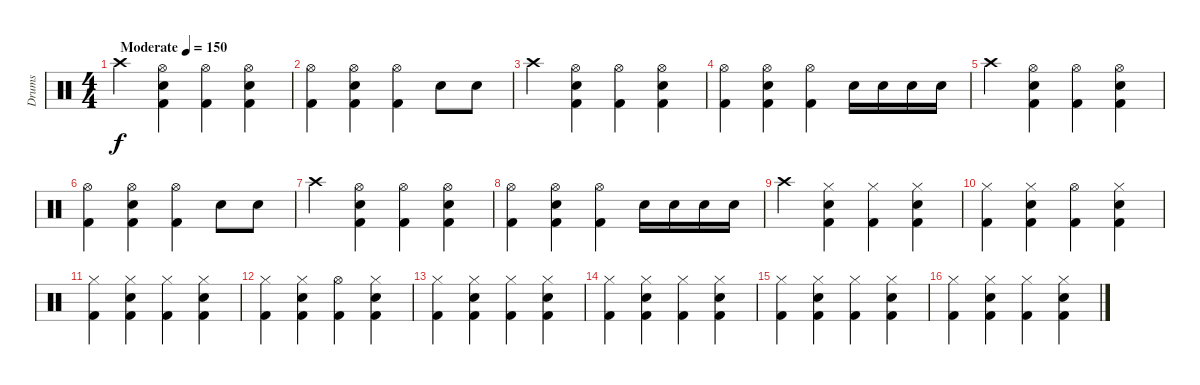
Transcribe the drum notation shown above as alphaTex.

\track ("Drums" "Drums") {instrument percussion}
\staff {score}
\articulation defaults
\ts (4 4)
\tempo (150 "Moderate")
\clef neutral
\ks c "Crash high (hit)".4{dy f}
("Hi-Hat (open)" "Electric Snare (hit)" "Kick (hit) 2").4 ("Hi-Hat (open)" "Kick (hit) 2").4 ("Hi-Hat (open)" "Electric Snare (hit)" "Kick (hit) 2").4 |
("Hi-Hat (open)" "Kick (hit) 2").4 ("Hi-Hat (open)" "Electric Snare (hit)" "Kick (hit) 2").4 ("Hi-Hat (open)" "Kick (hit) 2").4 "Electric Snare (hit)".8 "Electric Snare (hit)".8 |
"Crash high (hit)".4 ("Hi-Hat (open)" "Electric Snare (hit)" "Kick (hit) 2").4 ("Hi-Hat (open)" "Kick (hit) 2").4 ("Hi-Hat (open)" "Electric Snare (hit)" "Kick (hit) 2").4 |
("Hi-Hat (open)" "Kick (hit) 2").4 ("Hi-Hat (open)" "Electric Snare (hit)" "Kick (hit) 2").4 ("Hi-Hat (open)" "Kick (hit) 2").4 "Electric Snare (hit)".16 "Electric Snare (hit)".16 "Electric Snare (hit)".16 "Electric Snare (hit)".16 |
"Crash high (hit)".4 ("Hi-Hat (open)" "Electric Snare (hit)" "Kick (hit) 2").4 ("Hi-Hat (open)" "Kick (hit) 2").4 ("Hi-Hat (open)" "Electric Snare (hit)" "Kick (hit) 2").4 |
("Hi-Hat (open)" "Kick (hit) 2").4 ("Hi-Hat (open)" "Electric Snare (hit)" "Kick (hit) 2").4 ("Hi-Hat (open)" "Kick (hit) 2").4 "Electric Snare (hit)".8 "Electric Snare (hit)".8 |
"Crash high (hit)".4 ("Hi-Hat (open)" "Electric Snare (hit)" "Kick (hit) 2").4 ("Hi-Hat (open)" "Kick (hit) 2").4 ("Hi-Hat (open)" "Electric Snare (hit)" "Kick (hit) 2").4 |
("Hi-Hat (open)" "Kick (hit) 2").4 ("Hi-Hat (open)" "Electric Snare (hit)" "Kick (hit) 2").4 ("Hi-Hat (open)" "Kick (hit) 2").4 "Electric Snare (hit)".16 "Electric Snare (hit)".16 "Electric Snare (hit)".16 "Electric Snare (hit)".16 |
"Crash high (hit)".4 ("Hi-Hat (closed)" "Electric Snare (hit)" "Kick (hit) 2").4 ("Hi-Hat (closed)" "Kick (hit) 2").4 ("Hi-Hat (closed)" "Electric Snare (hit)" "Kick (hit) 2").4 |
("Hi-Hat (closed)" "Kick (hit) 2").4 ("Hi-Hat (closed)" "Electric Snare (hit)" "Kick (hit) 2").4 ("Hi-Hat (open)" "Kick (hit) 2").4 ("Hi-Hat (closed)" "Electric Snare (hit)" "Kick (hit) 2").4 |
("Hi-Hat (closed)" "Kick (hit) 2").4 ("Hi-Hat (closed)" "Electric Snare (hit)" "Kick (hit) 2").4 ("Hi-Hat (closed)" "Kick (hit) 2").4 ("Hi-Hat (closed)" "Electric Snare (hit)" "Kick (hit) 2").4 |
("Hi-Hat (closed)" "Kick (hit) 2").4 ("Hi-Hat (closed)" "Electric Snare (hit)" "Kick (hit) 2").4 ("Hi-Hat (open)" "Kick (hit) 2").4 ("Hi-Hat (closed)" "Electric Snare (hit)" "Kick (hit) 2").4 |
("Hi-Hat (closed)" "Kick (hit) 2").4 ("Hi-Hat (closed)" "Electric Snare (hit)" "Kick (hit) 2").4 ("Hi-Hat (closed)" "Kick (hit) 2").4 ("Hi-Hat (closed)" "Electric Snare (hit)" "Kick (hit) 2").4 |
("Hi-Hat (closed)" "Kick (hit) 2").4 ("Hi-Hat (closed)" "Electric Snare (hit)" "Kick (hit) 2").4 ("Hi-Hat (closed)" "Kick (hit) 2").4 ("Hi-Hat (closed)" "Electric Snare (hit)" "Kick (hit) 2").4 |
("Hi-Hat (closed)" "Kick (hit) 2").4 ("Hi-Hat (closed)" "Electric Snare (hit)" "Kick (hit) 2").4 ("Hi-Hat (closed)" "Kick (hit) 2").4 ("Hi-Hat (closed)" "Electric Snare (hit)" "Kick (hit) 2").4 |
("Hi-Hat (closed)" "Kick (hit) 2").4 ("Hi-Hat (closed)" "Electric Snare (hit)" "Kick (hit) 2").4 ("Hi-Hat (closed)" "Kick (hit) 2").4 ("Hi-Hat (closed)" "Electric Snare (hit)" "Kick (hit) 2").4
